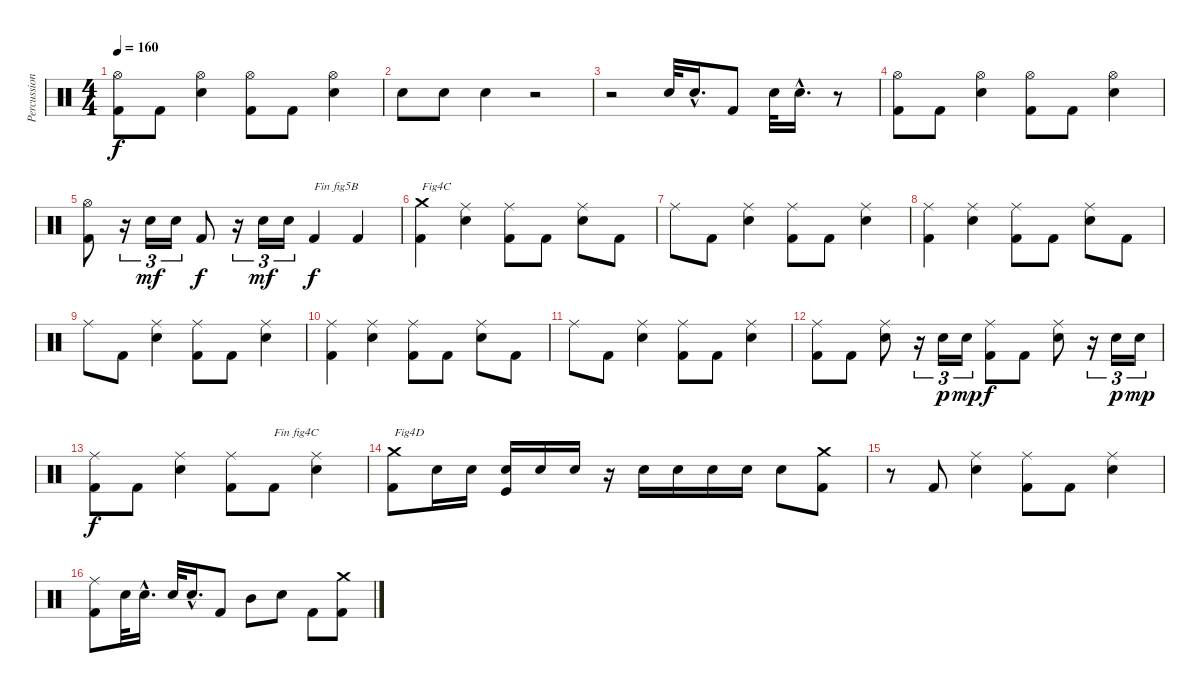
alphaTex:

\track ("Percussions" "Percussion") {instrument percussion}
\staff {score}
\articulation defaults
\ts (4 4)
\tempo 160
\clef neutral
\ks c
("Kick (hit) 2" "Hi-Hat (open)").8{dy f} "Kick (hit) 2".8 ("Electric Snare (hit)" "Hi-Hat (open)").4 ("Kick (hit) 2" "Hi-Hat (open)").8 "Kick (hit) 2".8 ("Electric Snare (hit)" "Hi-Hat (open)").4 |
"Electric Snare (hit)".8 "Electric Snare (hit)".8 "Electric Snare (hit)".4 r.2 |
r.2 "Electric Snare (hit)".32 "Electric Snare (hit)"{hac}.16{d} "Kick (hit) 2".8 "Electric Snare (hit)".32 "Electric Snare (hit)"{hac}.16{d} r.8 |
("Kick (hit) 2" "Hi-Hat (open)").8 "Kick (hit) 2".8 ("Electric Snare (hit)" "Hi-Hat (open)").4 ("Kick (hit) 2" "Hi-Hat (open)").8 "Kick (hit) 2".8 ("Electric Snare (hit)" "Hi-Hat (open)").4 |
("Kick (hit) 2" "Hi-Hat (open)").8 r.16{tu (3 2)} "Electric Snare (hit)".16{tu (3 2) dy mf} "Electric Snare (hit)".16{tu (3 2)} "Kick (hit) 2".8{dy f} r.16{tu (3 2)} "Electric Snare (hit)".16{tu (3 2) dy mf} "Electric Snare (hit)".16{tu (3 2)} "Kick (hit) 2".4{txt "Fin fig5B" dy f} "Kick (hit) 2".4 |
("Kick (hit) 2" "Crash medium (hit)").4{txt "Fig4C"} ("Electric Snare (hit)" "Ride (middle)").4 ("Kick (hit) 2" "Ride (middle)").8 "Kick (hit) 2".8 ("Electric Snare (hit)" "Ride (middle)").8 "Kick (hit) 2".8 |
"Ride (middle)".8 "Kick (hit) 2".8 ("Electric Snare (hit)" "Ride (middle)").4 ("Kick (hit) 2" "Ride (middle)").8 "Kick (hit) 2".8 ("Electric Snare (hit)" "Ride (middle)").4 |
("Kick (hit) 2" "Ride (middle)").4 ("Electric Snare (hit)" "Ride (middle)").4 ("Kick (hit) 2" "Ride (middle)").8 "Kick (hit) 2".8 ("Electric Snare (hit)" "Ride (middle)").8 "Kick (hit) 2".8 |
"Ride (middle)".8 "Kick (hit) 2".8 ("Electric Snare (hit)" "Ride (middle)").4 ("Kick (hit) 2" "Ride (middle)").8 "Kick (hit) 2".8 ("Electric Snare (hit)" "Ride (middle)").4 |
("Kick (hit) 2" "Ride (middle)").4 ("Electric Snare (hit)" "Ride (middle)").4 ("Kick (hit) 2" "Ride (middle)").8 "Kick (hit) 2".8 ("Electric Snare (hit)" "Ride (middle)").8 "Kick (hit) 2".8 |
"Ride (middle)".8 "Kick (hit) 2".8 ("Electric Snare (hit)" "Ride (middle)").4 ("Kick (hit) 2" "Ride (middle)").8 "Kick (hit) 2".8 ("Electric Snare (hit)" "Ride (middle)").4 |
("Kick (hit) 2" "Ride (middle)").8 "Kick (hit) 2".8 ("Electric Snare (hit)" "Ride (middle)").8 r.16{tu (3 2)} "Electric Snare (hit)".16{tu (3 2) dy p} "Electric Snare (hit)".16{tu (3 2) dy mp} ("Kick (hit) 2" "Ride (middle)").8{dy f} "Kick (hit) 2".8 ("Electric Snare (hit)" "Ride (middle)").8 r.16{tu (3 2)} "Electric Snare (hit)".16{tu (3 2) dy p} "Electric Snare (hit)".16{tu (3 2) dy mp} |
("Kick (hit) 2" "Ride (middle)").8{dy f} "Kick (hit) 2".8 ("Electric Snare (hit)" "Ride (middle)").4 ("Kick (hit) 2" "Ride (middle)").8 "Kick (hit) 2".8{txt "Fin fig4C"} ("Electric Snare (hit)" "Ride (middle)").4 |
("Kick (hit) 2" "Crash medium (hit)").8{txt "Fig4D"} "Electric Snare (hit)".16 "Electric Snare (hit)".16 ("Kick (hit)" "Electric Snare (hit)").16 "Electric Snare (hit)".16 "Electric Snare (hit)".16 r.16 "Electric Snare (hit)".16 "Electric Snare (hit)".16 "Electric Snare (hit)".16 "Electric Snare (hit)".16 "Electric Snare (hit)".8 ("Kick (hit) 2" "Crash medium (hit)").8 |
r.8 "Kick (hit) 2".8 ("Electric Snare (hit)" "Ride (middle)").4 ("Kick (hit) 2" "Ride (middle)").8 "Kick (hit) 2".8 ("Electric Snare (hit)" "Ride (middle)").4 |
("Kick (hit) 2" "Ride (middle)").8 "Electric Snare (hit)".32 "Electric Snare (hit)"{hac}.16{d} "Electric Snare (hit)".32 "Electric Snare (hit)"{hac}.16{d} "Kick (hit) 2".8 "Mid Tom (hit)".8 "Electric Snare (hit)".8 "Kick (hit) 2".8 ("Kick (hit) 2" "Crash medium (hit)").8
